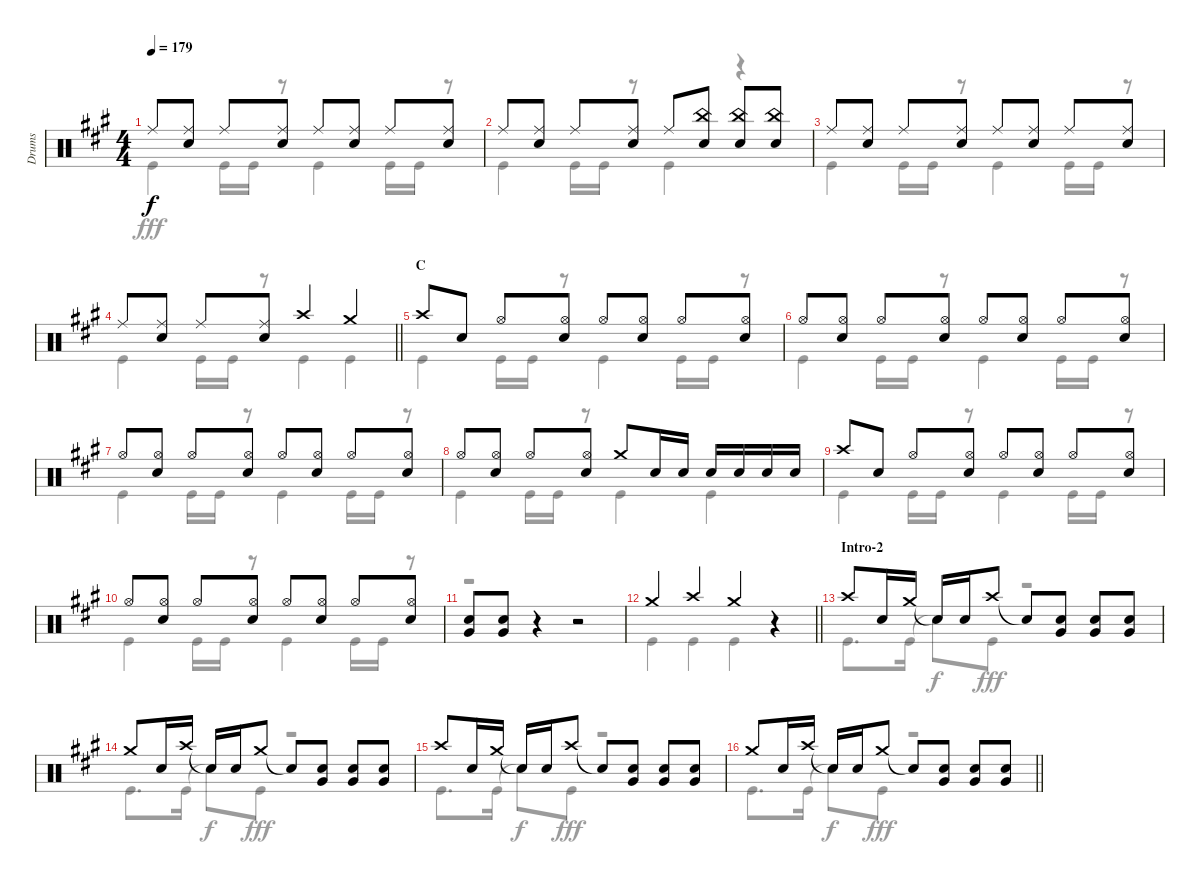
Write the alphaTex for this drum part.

\track ("Drums" "Drums") {instrument percussion}
\staff {score}
\articulation defaults
\voice
\ts (4 4)
\tempo 179
\clef neutral
\ks a "Ride (middle)".8{dy f}
("Ride (middle)" "Snare (hit) 2").8 "Ride (middle)".8 ("Ride (middle)" "Snare (hit) 2").8 "Ride (middle)".8 ("Ride (middle)" "Snare (hit) 2").8 "Ride (middle)".8 ("Ride (middle)" "Snare (hit) 2").8 |
"Ride (middle)".8 ("Ride (middle)" "Snare (hit) 2").8 "Ride (middle)".8 ("Ride (middle)" "Snare (hit) 2").8 "Ride (middle)".8 ("China (hit)" "Snare (hit) 2").8 ("China (hit)" "Snare (hit) 2").8 ("China (hit)" "Snare (hit) 2").8 |
"Ride (middle)".8 ("Ride (middle)" "Snare (hit) 2").8 "Ride (middle)".8 ("Ride (middle)" "Snare (hit) 2").8 "Ride (middle)".8 ("Ride (middle)" "Snare (hit) 2").8 "Ride (middle)".8 ("Ride (middle)" "Snare (hit) 2").8 |
\barLineRight lightlight "Ride (middle)".8
("Ride (middle)" "Snare (hit) 2").8 "Ride (middle)".8 ("Ride (middle)" "Snare (hit) 2").8 "Crash high (hit)".4 "Crash medium (hit)".4 |
\section ("" "C")
"Crash high (hit)".8 "Snare (hit) 2".8 "Hi-Hat (open)".8 ("Hi-Hat (open)" "Snare (hit) 2").8 "Hi-Hat (open)".8 ("Hi-Hat (open)" "Snare (hit) 2").8 "Hi-Hat (open)".8 ("Hi-Hat (open)" "Snare (hit) 2").8 |
"Hi-Hat (open)".8 ("Hi-Hat (open)" "Snare (hit) 2").8 "Hi-Hat (open)".8 ("Hi-Hat (open)" "Snare (hit) 2").8 "Hi-Hat (open)".8 ("Hi-Hat (open)" "Snare (hit) 2").8 "Hi-Hat (open)".8 ("Hi-Hat (open)" "Snare (hit) 2").8 |
"Hi-Hat (open)".8 ("Hi-Hat (open)" "Snare (hit) 2").8 "Hi-Hat (open)".8 ("Hi-Hat (open)" "Snare (hit) 2").8 "Hi-Hat (open)".8 ("Hi-Hat (open)" "Snare (hit) 2").8 "Hi-Hat (open)".8 ("Hi-Hat (open)" "Snare (hit) 2").8 |
"Hi-Hat (open)".8 ("Hi-Hat (open)" "Snare (hit) 2").8 "Hi-Hat (open)".8 ("Hi-Hat (open)" "Snare (hit) 2").8 "Crash medium (hit)".8 "Snare (hit) 2".16 "Snare (hit) 2".16 "Snare (hit) 2".16 "Snare (hit) 2".16 "Snare (hit) 2".16 "Snare (hit) 2".16 |
"Crash high (hit)".8 "Snare (hit) 2".8 "Hi-Hat (open)".8 ("Hi-Hat (open)" "Snare (hit) 2").8 "Hi-Hat (open)".8 ("Hi-Hat (open)" "Snare (hit) 2").8 "Hi-Hat (open)".8 ("Hi-Hat (open)" "Snare (hit) 2").8 |
"Hi-Hat (open)".8 ("Hi-Hat (open)" "Snare (hit) 2").8 "Hi-Hat (open)".8 ("Hi-Hat (open)" "Snare (hit) 2").8 "Hi-Hat (open)".8 ("Hi-Hat (open)" "Snare (hit) 2").8 "Hi-Hat (open)".8 ("Hi-Hat (open)" "Snare (hit) 2").8 |
("Snare (hit) 2" "Very Low Tom (hit)").8 ("Snare (hit) 2" "Very Low Tom (hit)").8 r.4 r.2 |
\barLineRight lightlight "Crash medium (hit)".4 "Crash high (hit)".4 "Crash medium (hit)".4
r.4 |
\section ("" "Intro-2")
"Crash high (hit)".8 "Snare (hit) 2".16 "Crash medium (hit)".16 "Snare (hit)"{t}.16 "Snare (hit) 2".16 "Crash high (hit)".8 "Snare (hit)"{t}.8 ("Snare (hit) 2" "Very Low Tom (hit)").8 ("Snare (hit) 2" "Very Low Tom (hit)").8 ("Snare (hit) 2" "Very Low Tom (hit)").8 |
"Crash medium (hit)".8 "Snare (hit) 2".16 "Crash high (hit)".16 "Snare (hit)"{t}.16 "Snare (hit) 2".16 "Crash medium (hit)".8 "Snare (hit)"{t}.8 ("Snare (hit) 2" "Very Low Tom (hit)").8 ("Snare (hit) 2" "Very Low Tom (hit)").8 ("Snare (hit) 2" "Very Low Tom (hit)").8 |
"Crash high (hit)".8 "Snare (hit) 2".16 "Crash medium (hit)".16 "Snare (hit)"{t}.16 "Snare (hit) 2".16 "Crash high (hit)".8 "Snare (hit)"{t}.8 ("Snare (hit) 2" "Very Low Tom (hit)").8 ("Snare (hit) 2" "Very Low Tom (hit)").8 ("Snare (hit) 2" "Very Low Tom (hit)").8 |
\barLineRight lightlight "Crash medium (hit)".8 "Snare (hit) 2".16 "Crash high (hit)".16 "Snare (hit)"{t}.16 "Snare (hit) 2".16 "Crash medium (hit)".8 "Snare (hit)"{t}.8
("Snare (hit) 2" "Very Low Tom (hit)").8 ("Snare (hit) 2" "Very Low Tom (hit)").8 ("Snare (hit) 2" "Very Low Tom (hit)").8
\voice
\clef neutral
\ottava regular
\simile none
\ks a "Kick (hit)".4{dy fff} "Kick (hit)".16 "Kick (hit)".16
r.8 "Kick (hit)".4 "Kick (hit)".16 "Kick (hit)".16 r.8 |
"Kick (hit)".4 "Kick (hit)".16 "Kick (hit)".16 r.8 "Kick (hit)".4 r.4 |
"Kick (hit)".4 "Kick (hit)".16 "Kick (hit)".16 r.8 "Kick (hit)".4 "Kick (hit)".16 "Kick (hit)".16 r.8 |
\barLineRight lightlight "Kick (hit)".4 "Kick (hit)".16 "Kick (hit)".16
r.8 "Kick (hit)".4 "Kick (hit)".4 |
"Kick (hit)".4 "Kick (hit)".16 "Kick (hit)".16 r.8 "Kick (hit)".4 "Kick (hit)".16 "Kick (hit)".16 r.8 |
"Kick (hit)".4 "Kick (hit)".16 "Kick (hit)".16 r.8 "Kick (hit)".4 "Kick (hit)".16 "Kick (hit)".16 r.8 |
"Kick (hit)".4 "Kick (hit)".16 "Kick (hit)".16 r.8 "Kick (hit)".4 "Kick (hit)".16 "Kick (hit)".16 r.8 |
"Kick (hit)".4 "Kick (hit)".16 "Kick (hit)".16 r.8 "Kick (hit)".4 "Kick (hit)".4 |
"Kick (hit)".4 "Kick (hit)".16 "Kick (hit)".16 r.8 "Kick (hit)".4 "Kick (hit)".16 "Kick (hit)".16 r.8 |
"Kick (hit)".4 "Kick (hit)".16 "Kick (hit)".16 r.8 "Kick (hit)".4 "Kick (hit)".16 "Kick (hit)".16 r.8 |
r.1 |
\barLineRight lightlight "Kick (hit)".4 "Kick (hit)".4 "Kick (hit)".4
r.4 |
"Kick (hit)".8{d} "Kick (hit)".16 "Snare (hit)"{t}.8{dy f} "Kick (hit)".8{dy fff} r.2 |
"Kick (hit)".8{d} "Kick (hit)".16 "Snare (hit)"{t}.8{dy f} "Kick (hit)".8{dy fff} r.2 |
"Kick (hit)".8{d} "Kick (hit)".16 "Snare (hit)"{t}.8{dy f} "Kick (hit)".8{dy fff} r.2 |
\barLineRight lightlight "Kick (hit)".8{d} "Kick (hit)".16 "Snare (hit)"{t}.8{dy f} "Kick (hit)".8{dy fff}
r.2
